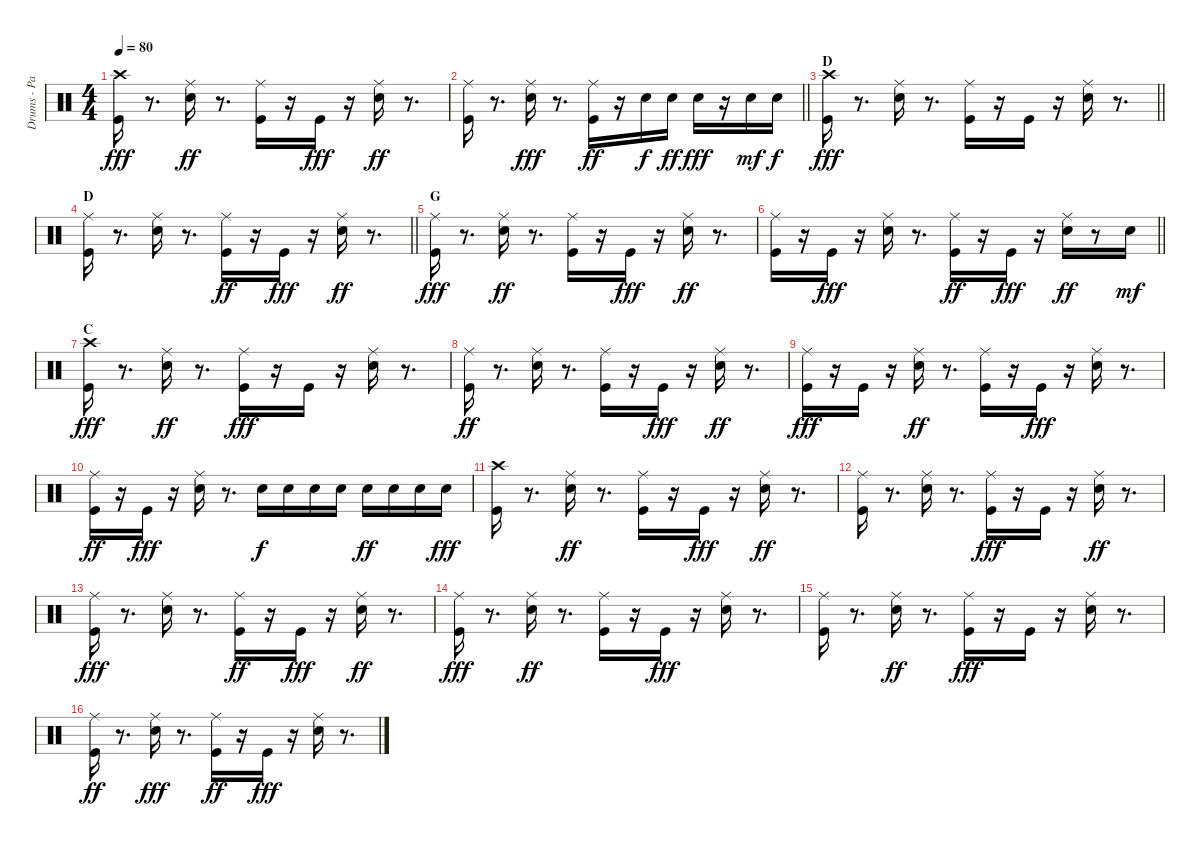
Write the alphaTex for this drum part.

\track ("Drums - Paice" "Drums - Pa") {instrument percussion}
\staff {score}
\articulation defaults
\ts (4 4)
\tempo 80
\clef neutral
\ks c
("Crash high (hit)" "Kick (hit)").16{dy fff} r.8{d} ("Snare (hit) 2" "Ride (middle)").16{dy ff} r.8{d} ("Kick (hit)" "Ride (middle)").16 r.16 "Kick (hit)".16{dy fff} r.16 ("Snare (hit) 2" "Ride (middle)").16{dy ff} r.8{d} |
\barLineRight lightlight
("Kick (hit)" "Ride (middle)").16 r.8{d} ("Ride (middle)" "Snare (hit) 2").16{dy fff} r.8{d} ("Kick (hit)" "Ride (middle)").16{dy ff} r.16 "Snare (hit) 2".16{dy f} "Snare (hit) 2".16{dy ff} "Snare (hit) 2".16{dy fff} r.16 "Snare (hit) 2".16{dy mf} "Snare (hit) 2".16{dy f} |
\section ("" "D")
\barLineRight lightlight
("Kick (hit)" "Crash high (hit)").16{dy fff} r.8{d} ("Ride (middle)" "Snare (hit) 2").16 r.8{d} ("Ride (middle)" "Kick (hit)").16 r.16 "Kick (hit)".16 r.16 ("Ride (middle)" "Snare (hit) 2").16 r.8{d} |
\section ("" "D")
\barLineRight lightlight
("Ride (middle)" "Kick (hit)").16 r.8{d} ("Ride (middle)" "Snare (hit) 2").16 r.8{d} ("Kick (hit)" "Ride (middle)").16{dy ff} r.16 "Kick (hit)".16{dy fff} r.16 ("Snare (hit) 2" "Ride (middle)").16{dy ff} r.8{d} |
\section ("" "G")
("Ride (middle)" "Kick (hit)").16{dy fff} r.8{d} ("Snare (hit) 2" "Ride (middle)").16{dy ff} r.8{d} ("Kick (hit)" "Ride (middle)").16 r.16 "Kick (hit)".16{dy fff} r.16 ("Snare (hit) 2" "Ride (middle)").16{dy ff} r.8{d} |
\barLineRight lightlight
("Kick (hit)" "Ride (middle)").16 r.16 "Kick (hit)".16{dy fff} r.16 ("Ride (middle)" "Snare (hit) 2").16 r.8{d} ("Kick (hit)" "Ride (middle)").16{dy ff} r.16 "Kick (hit)".16{dy fff} r.16 ("Snare (hit) 2" "Ride (middle)").16{dy ff} r.8 "Snare (hit) 2".16{dy mf} |
\section ("" "C")
("Kick (hit)" "Crash high (hit)").16{dy fff} r.8{d} ("Snare (hit) 2" "Ride (middle)").16{dy ff} r.8{d} ("Ride (middle)" "Kick (hit)").16{dy fff} r.16 "Kick (hit)".16 r.16 ("Ride (middle)" "Snare (hit) 2").16 r.8{d} |
("Kick (hit)" "Ride (middle)").16{dy ff} r.8{d} ("Snare (hit) 2" "Ride (middle)").16 r.8{d} ("Kick (hit)" "Ride (middle)").16 r.16 "Kick (hit)".16{dy fff} r.16 ("Snare (hit) 2" "Ride (middle)").16{dy ff} r.8{d} |
("Ride (middle)" "Kick (hit)").16{dy fff} r.16 "Kick (hit)".16 r.16 ("Snare (hit) 2" "Ride (middle)").16{dy ff} r.8{d} ("Kick (hit)" "Ride (middle)").16 r.16 "Kick (hit)".16{dy fff} r.16 ("Ride (middle)" "Snare (hit) 2").16 r.8{d} |
("Kick (hit)" "Ride (middle)").16{dy ff} r.16 "Kick (hit)".16{dy fff} r.16 ("Ride (middle)" "Snare (hit) 2").16 r.8{d} "Snare (hit) 2".16{dy f} "Snare (hit) 2".16 "Snare (hit) 2".16 "Snare (hit) 2".16 "Snare (hit) 2".16{dy ff} "Snare (hit) 2".16 "Snare (hit) 2".16 "Snare (hit) 2".16{dy fff} |
("Crash high (hit)" "Kick (hit)").16 r.8{d} ("Snare (hit) 2" "Ride (middle)").16{dy ff} r.8{d} ("Kick (hit)" "Ride (middle)").16 r.16 "Kick (hit)".16{dy fff} r.16 ("Snare (hit) 2" "Ride (middle)").16{dy ff} r.8{d} |
("Kick (hit)" "Ride (middle)").16 r.8{d} ("Snare (hit) 2" "Ride (middle)").16 r.8{d} ("Ride (middle)" "Kick (hit)").16{dy fff} r.16 "Kick (hit)".16 r.16 ("Snare (hit) 2" "Ride (middle)").16{dy ff} r.8{d} |
("Ride (middle)" "Kick (hit)").16{dy fff} r.8{d} ("Ride (middle)" "Snare (hit) 2").16 r.8{d} ("Kick (hit)" "Ride (middle)").16{dy ff} r.16 "Kick (hit)".16{dy fff} r.16 ("Snare (hit) 2" "Ride (middle)").16{dy ff} r.8{d} |
("Ride (middle)" "Kick (hit)").16{dy fff} r.8{d} ("Snare (hit) 2" "Ride (middle)").16{dy ff} r.8{d} ("Kick (hit)" "Ride (middle)").16 r.16 "Kick (hit)".16{dy fff} r.16 ("Ride (middle)" "Snare (hit) 2").16 r.8{d} |
("Ride (middle)" "Kick (hit)").16 r.8{d} ("Snare (hit) 2" "Ride (middle)").16{dy ff} r.8{d} ("Ride (middle)" "Kick (hit)").16{dy fff} r.16 "Kick (hit)".16 r.16 ("Ride (middle)" "Snare (hit) 2").16 r.8{d} |
("Kick (hit)" "Ride (middle)").16{dy ff} r.8{d} ("Ride (middle)" "Snare (hit) 2").16{dy fff} r.8{d} ("Kick (hit)" "Ride (middle)").16{dy ff} r.16 "Kick (hit)".16{dy fff} r.16 ("Ride (middle)" "Snare (hit) 2").16 r.8{d}
